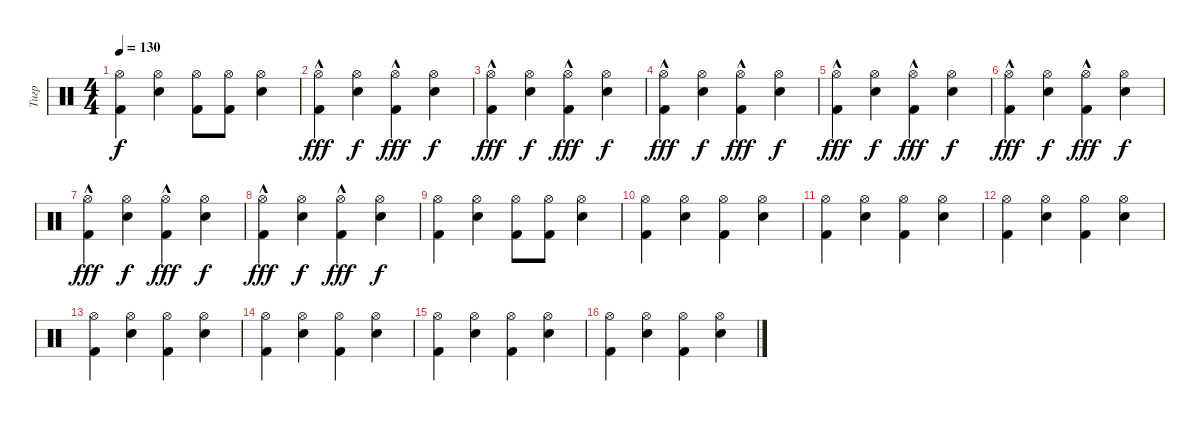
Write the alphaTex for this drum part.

\track ("Тигр" "Тигр") {instrument percussion}
\staff {score}
\articulation defaults
\ts (4 4)
\tempo 130
\clef neutral
\ks c
("Hi-Hat (open)" "Kick (hit) 2").4{dy f} ("Hi-Hat (open)" "Snare (hit) 2").4 ("Hi-Hat (open)" "Kick (hit) 2").8 ("Hi-Hat (open)" "Kick (hit) 2").8 ("Hi-Hat (open)" "Snare (hit) 2").4 |
("Hi-Hat (open)"{hac} "Kick (hit) 2").4{dy fff} ("Hi-Hat (open)" "Snare (hit) 2").4{dy f} ("Hi-Hat (open)"{hac} "Kick (hit) 2").4{dy fff} ("Hi-Hat (open)" "Snare (hit) 2").4{dy f} |
("Hi-Hat (open)"{hac} "Kick (hit) 2").4{dy fff} ("Hi-Hat (open)" "Snare (hit) 2").4{dy f} ("Hi-Hat (open)"{hac} "Kick (hit) 2").4{dy fff} ("Hi-Hat (open)" "Snare (hit) 2").4{dy f} |
("Hi-Hat (open)"{hac} "Kick (hit) 2").4{dy fff} ("Hi-Hat (open)" "Snare (hit) 2").4{dy f} ("Hi-Hat (open)"{hac} "Kick (hit) 2").4{dy fff} ("Hi-Hat (open)" "Snare (hit) 2").4{dy f} |
("Hi-Hat (open)"{hac} "Kick (hit) 2").4{dy fff} ("Hi-Hat (open)" "Snare (hit) 2").4{dy f} ("Hi-Hat (open)"{hac} "Kick (hit) 2").4{dy fff} ("Hi-Hat (open)" "Snare (hit) 2").4{dy f} |
("Hi-Hat (open)"{hac} "Kick (hit) 2").4{dy fff} ("Hi-Hat (open)" "Snare (hit) 2").4{dy f} ("Hi-Hat (open)"{hac} "Kick (hit) 2").4{dy fff} ("Hi-Hat (open)" "Snare (hit) 2").4{dy f} |
("Hi-Hat (open)"{hac} "Kick (hit) 2").4{dy fff} ("Hi-Hat (open)" "Snare (hit) 2").4{dy f} ("Hi-Hat (open)"{hac} "Kick (hit) 2").4{dy fff} ("Hi-Hat (open)" "Snare (hit) 2").4{dy f} |
("Hi-Hat (open)"{hac} "Kick (hit) 2").4{dy fff} ("Hi-Hat (open)" "Snare (hit) 2").4{dy f} ("Hi-Hat (open)"{hac} "Kick (hit) 2").4{dy fff} ("Hi-Hat (open)" "Snare (hit) 2").4{dy f} |
("Hi-Hat (open)" "Kick (hit) 2").4 ("Hi-Hat (open)" "Snare (hit) 2").4 ("Hi-Hat (open)" "Kick (hit) 2").8 ("Hi-Hat (open)" "Kick (hit) 2").8 ("Hi-Hat (open)" "Snare (hit) 2").4 |
("Hi-Hat (open)" "Kick (hit) 2").4 ("Hi-Hat (open)" "Snare (hit) 2").4 ("Hi-Hat (open)" "Kick (hit) 2").4 ("Hi-Hat (open)" "Snare (hit) 2").4 |
("Hi-Hat (open)" "Kick (hit) 2").4 ("Hi-Hat (open)" "Snare (hit) 2").4 ("Hi-Hat (open)" "Kick (hit) 2").4 ("Hi-Hat (open)" "Snare (hit) 2").4 |
("Hi-Hat (open)" "Kick (hit) 2").4 ("Hi-Hat (open)" "Snare (hit) 2").4 ("Hi-Hat (open)" "Kick (hit) 2").4 ("Hi-Hat (open)" "Snare (hit) 2").4 |
("Hi-Hat (open)" "Kick (hit) 2").4 ("Hi-Hat (open)" "Snare (hit) 2").4 ("Hi-Hat (open)" "Kick (hit) 2").4 ("Hi-Hat (open)" "Snare (hit) 2").4 |
("Hi-Hat (open)" "Kick (hit) 2").4 ("Hi-Hat (open)" "Snare (hit) 2").4 ("Hi-Hat (open)" "Kick (hit) 2").4 ("Hi-Hat (open)" "Snare (hit) 2").4 |
("Hi-Hat (open)" "Kick (hit) 2").4 ("Hi-Hat (open)" "Snare (hit) 2").4 ("Hi-Hat (open)" "Kick (hit) 2").4 ("Hi-Hat (open)" "Snare (hit) 2").4 |
("Hi-Hat (open)" "Kick (hit) 2").4 ("Hi-Hat (open)" "Snare (hit) 2").4 ("Hi-Hat (open)" "Kick (hit) 2").4 ("Hi-Hat (open)" "Snare (hit) 2").4
